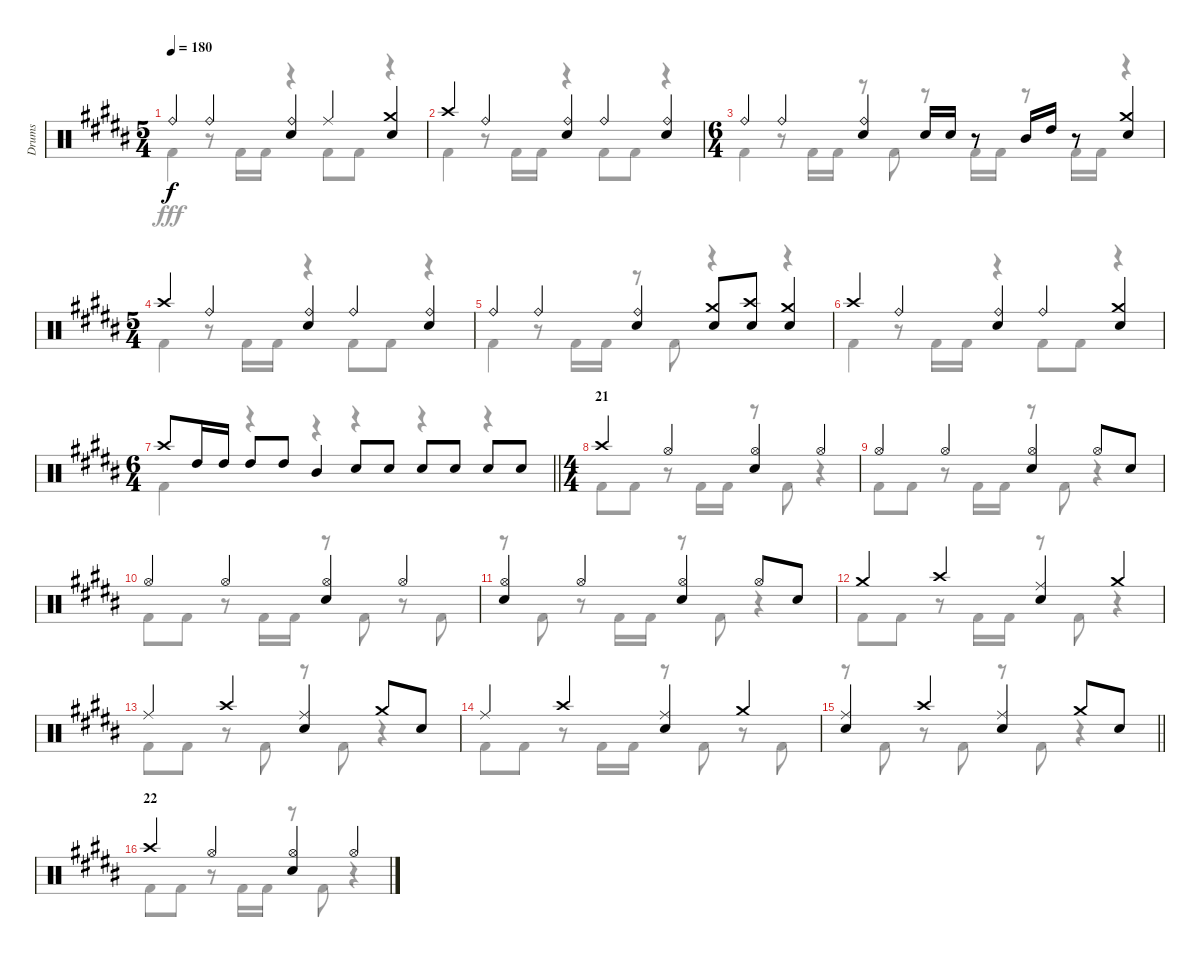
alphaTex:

\track ("Drums" "Drums") {instrument percussion}
\staff {score}
\articulation defaults
\voice
\ts (5 4)
\tempo 180
\clef neutral
\ks b "Ride (bell)".4{dy f} "Ride (bell)".4
("Ride (bell)" "Snare (hit) 2").4 "Ride (middle)".4 ("Crash medium (hit)" "Snare (hit) 2").4 |
"Crash high (hit)".4 "Ride (bell)".4 ("Ride (bell)" "Snare (hit) 2").4 "Ride (bell)".4 ("Ride (bell)" "Snare (hit) 2").4 |
\ts (6 4)
"Ride (bell)".4 "Ride (bell)".4 ("Ride (bell)" "Snare (hit) 2").4 "Snare (hit) 2".16 "Snare (hit) 2".16 r.8 "Mid Tom (hit)".16 "High Tom (hit)".16 r.8 ("Crash medium (hit)" "Snare (hit) 2").4 |
\ts (5 4)
"Crash high (hit)".4 "Ride (bell)".4 ("Ride (bell)" "Snare (hit) 2").4 "Ride (bell)".4 ("Ride (bell)" "Snare (hit) 2").4 |
"Ride (bell)".4 "Ride (bell)".4 ("Ride (bell)" "Snare (hit) 2").4 ("Crash medium (hit)" "Snare (hit) 2").8 ("Crash high (hit)" "Snare (hit) 2").8 ("Crash medium (hit)" "Snare (hit) 2").4 |
"Crash high (hit)".4 "Ride (bell)".4 ("Ride (bell)" "Snare (hit) 2").4 "Ride (bell)".4 ("Crash medium (hit)" "Snare (hit) 2").4 |
\ts (6 4)
\barLineRight lightlight "Crash high (hit)".8 "High Tom (hit)".16 "High Tom (hit)".16 "High Tom (hit)".8 "High Tom (hit)".8 "Mid Tom (hit)".4 "Snare (hit) 2".8 "Snare (hit) 2".8 "Snare (hit) 2".8 "Snare (hit) 2".8 "Snare (hit) 2".8 "Snare (hit) 2".8
|
\ts (4 4)
\section ("" "21")
"Crash high (hit)".4 "Hi-Hat (open)".4 ("Hi-Hat (open)" "Snare (hit) 2").4 "Hi-Hat (open)".4 |
"Hi-Hat (open)".4 "Hi-Hat (open)".4 ("Hi-Hat (open)" "Snare (hit) 2").4 "Hi-Hat (open)".8 "Snare (hit) 2".8 |
"Hi-Hat (open)".4 "Hi-Hat (open)".4 ("Hi-Hat (open)" "Snare (hit) 2").4 "Hi-Hat (open)".4 |
("Hi-Hat (open)" "Snare (hit) 2").4 "Hi-Hat (open)".4 ("Hi-Hat (open)" "Snare (hit) 2").4 "Hi-Hat (open)".8 "Snare (hit) 2".8 |
"Crash medium (hit)".4 "Crash high (hit)".4 ("Ride (middle)" "Snare (hit) 2").4 "Crash medium (hit)".4 |
"Ride (middle)".4 "Crash high (hit)".4 ("Ride (middle)" "Snare (hit) 2").4 "Crash medium (hit)".8 "Snare (hit) 2".8 |
"Ride (middle)".4 "Crash high (hit)".4 ("Ride (middle)" "Snare (hit) 2").4 "Crash medium (hit)".4 |
\barLineRight lightlight
("Ride (middle)" "Snare (hit) 2").4 "Crash high (hit)".4 ("Ride (middle)" "Snare (hit) 2").4 "Crash medium (hit)".8 "Snare (hit) 2".8 |
\section ("" "22")
"Crash high (hit)".4 "Hi-Hat (open)".4 ("Hi-Hat (open)" "Snare (hit) 2").4 "Hi-Hat (open)".4
\voice
\clef neutral
\ottava regular
\simile none
\ks b "Kick (hit) 2".4{dy fff}
r.8 "Kick (hit) 2".16 "Kick (hit) 2".16 r.4 "Kick (hit) 2".8 "Kick (hit) 2".8 r.4 |
"Kick (hit) 2".4 r.8 "Kick (hit) 2".16 "Kick (hit) 2".16 r.4 "Kick (hit) 2".8 "Kick (hit) 2".8 r.4 |
"Kick (hit) 2".4 r.8 "Kick (hit) 2".16 "Kick (hit) 2".16 r.8 "Kick (hit) 2".8 r.8 "Kick (hit) 2".16 "Kick (hit) 2".16 r.8 "Kick (hit) 2".16 "Kick (hit) 2".16 r.4 |
"Kick (hit) 2".4 r.8 "Kick (hit) 2".16 "Kick (hit) 2".16 r.4 "Kick (hit) 2".8 "Kick (hit) 2".8 r.4 |
"Kick (hit) 2".4 r.8 "Kick (hit) 2".16 "Kick (hit) 2".16 r.8 "Kick (hit) 2".8 r.4 r.4 |
"Kick (hit) 2".4 r.8 "Kick (hit) 2".16 "Kick (hit) 2".16 r.4 "Kick (hit) 2".8 "Kick (hit) 2".8 r.4 |
\barLineRight lightlight "Kick (hit) 2".4
r.4 r.4 r.4 r.4 r.4 |
"Kick (hit) 2".8 "Kick (hit) 2".8 r.8 "Kick (hit) 2".16 "Kick (hit) 2".16 r.8 "Kick (hit) 2".8 r.4 |
"Kick (hit) 2".8 "Kick (hit) 2".8 r.8 "Kick (hit) 2".16 "Kick (hit) 2".16 r.8 "Kick (hit) 2".8 r.4 |
"Kick (hit) 2".8 "Kick (hit) 2".8 r.8 "Kick (hit) 2".16 "Kick (hit) 2".16 r.8 "Kick (hit) 2".8 r.8 "Kick (hit) 2".8 |
r.8 "Kick (hit) 2".8 r.8 "Kick (hit) 2".16 "Kick (hit) 2".16 r.8 "Kick (hit) 2".8 r.4 |
"Kick (hit) 2".8 "Kick (hit) 2".8 r.8 "Kick (hit) 2".16 "Kick (hit) 2".16 r.8 "Kick (hit) 2".8 r.4 |
"Kick (hit) 2".8 "Kick (hit) 2".8 r.8 "Kick (hit) 2".8 r.8 "Kick (hit) 2".8 r.4 |
"Kick (hit) 2".8 "Kick (hit) 2".8 r.8 "Kick (hit) 2".16 "Kick (hit) 2".16 r.8 "Kick (hit) 2".8 r.8 "Kick (hit) 2".8 |
\barLineRight lightlight
r.8 "Kick (hit) 2".8 r.8 "Kick (hit) 2".8 r.8 "Kick (hit) 2".8 r.4 |
"Kick (hit) 2".8 "Kick (hit) 2".8 r.8 "Kick (hit) 2".16 "Kick (hit) 2".16 r.8 "Kick (hit) 2".8 r.4
